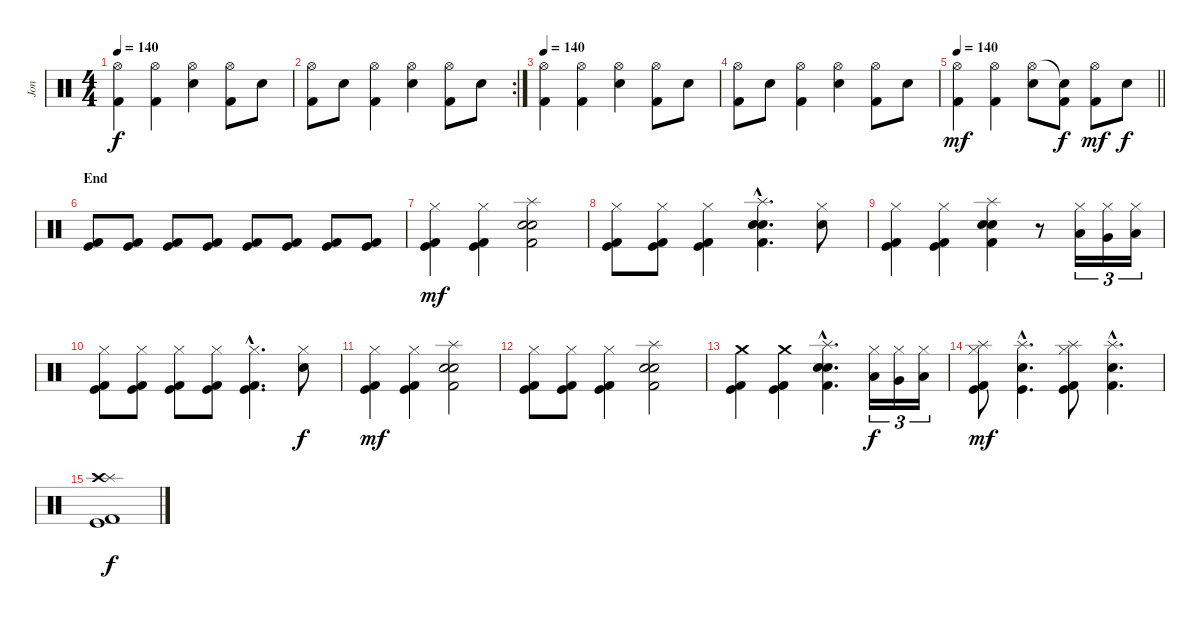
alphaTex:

\track ("Jon" "Jon") {instrument percussion}
\staff {score}
\articulation defaults
\ts (4 4)
\tempo 140
\clef neutral
\ks c
("Hi-Hat (open)" "Kick (hit) 2").4{dy f} ("Hi-Hat (open)" "Kick (hit) 2").4 ("Hi-Hat (open)" "Electric Snare (hit)").4 ("Hi-Hat (open)" "Kick (hit) 2").8 "Electric Snare (hit)".8 |
\rc 2
("Hi-Hat (open)" "Kick (hit) 2").8 "Electric Snare (hit)".8 ("Hi-Hat (open)" "Kick (hit) 2").4 ("Hi-Hat (open)" "Electric Snare (hit)").4 ("Hi-Hat (open)" "Kick (hit) 2").8 "Electric Snare (hit)".8 |
\tempo 100
\tempo 140
("Hi-Hat (open)" "Kick (hit) 2").4 ("Hi-Hat (open)" "Kick (hit) 2").4 ("Hi-Hat (open)" "Electric Snare (hit)").4 ("Hi-Hat (open)" "Kick (hit) 2").8 "Electric Snare (hit)".8 |
("Hi-Hat (open)" "Kick (hit) 2").8 "Electric Snare (hit)".8 ("Hi-Hat (open)" "Kick (hit) 2").4 ("Hi-Hat (open)" "Electric Snare (hit)").4 ("Hi-Hat (open)" "Kick (hit) 2").8 "Electric Snare (hit)".8 |
\tempo 140
\barLineRight lightlight
("Hi-Hat (open)" "Kick (hit) 2").4{dy mf} ("Hi-Hat (open)" "Kick (hit) 2").4 ("Hi-Hat (open)" "Electric Snare (hit)").8 ("Snare (hit)"{t} "Kick (hit) 2").8{dy f} ("Hi-Hat (open)" "Kick (hit) 2").8{dy mf} "Electric Snare (hit)".8{dy f} |
\section ("" "End")
("Kick (hit)" "Kick (hit) 2").8 ("Kick (hit)" "Kick (hit) 2").8 ("Kick (hit)" "Kick (hit) 2").8 ("Kick (hit)" "Kick (hit) 2").8 ("Kick (hit)" "Kick (hit) 2").8 ("Kick (hit)" "Kick (hit) 2").8 ("Kick (hit)" "Kick (hit) 2").8 ("Kick (hit)" "Kick (hit) 2").8 |
("Kick (hit)" "Hi-Hat (closed)" "Kick (hit) 2").4{dy mf} ("Kick (hit)" "Hi-Hat (closed)" "Kick (hit) 2").4 ("Electric Snare (hit)" "Electric Snare (hit)" "Splash (hit)" "Kick (hit) 2").2 |
("Kick (hit) 2" "Kick (hit)" "Hi-Hat (closed)").8 ("Kick (hit) 2" "Kick (hit)" "Hi-Hat (closed)").8 ("Kick (hit) 2" "Kick (hit)" "Hi-Hat (closed)").4 ("Electric Snare (hit)"{hac} "Electric Snare (hit)"{hac} "Splash (hit)"{hac} "Kick (hit) 2"{hac}).4{d} ("Electric Snare (hit)" "Hi-Hat (closed)").8 |
("Kick (hit) 2" "Kick (hit)" "Hi-Hat (closed)").4 ("Kick (hit) 2" "Kick (hit)" "Hi-Hat (closed)").4 ("Electric Snare (hit)" "Electric Snare (hit)" "Splash (hit)" "Kick (hit) 2").4 r.8 ("Low Tom (hit)" "Hi-Hat (closed)").16{tu (3 2)} ("Very Low Tom (hit)" "Hi-Hat (closed)").16{tu (3 2)} ("Low Floor Tom (hit)" "Hi-Hat (closed)").16{tu (3 2)} |
("Kick (hit) 2" "Kick (hit)" "Hi-Hat (closed)").8 ("Kick (hit) 2" "Kick (hit)" "Hi-Hat (closed)").8 ("Kick (hit) 2" "Kick (hit)" "Hi-Hat (closed)").8 ("Kick (hit) 2" "Kick (hit)" "Hi-Hat (closed)").8 ("Kick (hit) 2"{hac} "Kick (hit)"{hac} "Hi-Hat (closed)"{hac}).4{d} ("Electric Snare (hit)" "Hi-Hat (closed)").8{dy f} |
("Kick (hit) 2" "Kick (hit)" "Hi-Hat (closed)").4{dy mf} ("Kick (hit) 2" "Kick (hit)" "Hi-Hat (closed)").4 ("Electric Snare (hit)" "Electric Snare (hit)" "Splash (hit)" "Kick (hit) 2").2 |
("Kick (hit) 2" "Kick (hit)" "Hi-Hat (closed)").8 ("Kick (hit) 2" "Kick (hit)" "Hi-Hat (closed)").8 ("Kick (hit) 2" "Kick (hit)" "Hi-Hat (closed)").4 ("Electric Snare (hit)" "Electric Snare (hit)" "Splash (hit)" "Kick (hit) 2").2 |
("Kick (hit) 2" "Kick (hit)" "Crash medium (hit)").4 ("Kick (hit) 2" "Kick (hit)" "Crash medium (hit)").4 ("Electric Snare (hit)"{hac} "Electric Snare (hit)"{hac} "Splash (hit)"{hac} "Kick (hit) 2"{hac}).4{d} ("Low Tom (hit)" "Hi-Hat (closed)").16{tu (3 2) dy f} ("Very Low Tom (hit)" "Hi-Hat (closed)").16{tu (3 2)} ("Low Floor Tom (hit)" "Hi-Hat (closed)").16{tu (3 2)} |
("Kick (hit)" "Kick (hit) 2" "Hi-Hat (closed)" "Splash (hit)").8{dy mf} ("Electric Snare (hit)"{hac} "Kick (hit)"{hac} "Splash (hit)"{hac}).4{d} ("Kick (hit)" "Kick (hit) 2" "Hi-Hat (closed)" "Splash (hit)").8 ("Electric Snare (hit)"{hac} "Kick (hit) 2"{hac} "Splash (hit)"{hac}).4{d} |
("Kick (hit)" "Kick (hit) 2" "Splash (hit)" "Crash high (hit)").1{dy f}
